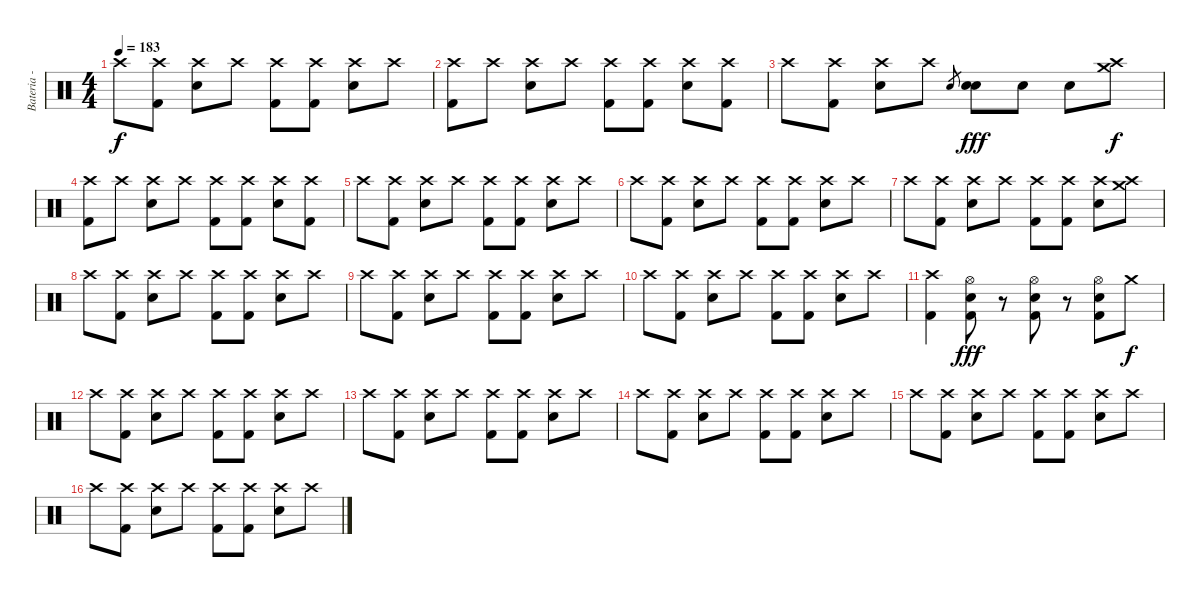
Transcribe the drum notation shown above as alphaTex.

\track ("Bateria - Larzon " "Bateria - ") {instrument percussion}
\staff {score}
\articulation defaults
\ts (4 4)
\tempo 183
\clef neutral
\ks c "Crash high (hit)".8{dy f}
("Kick (hit) 2" "Crash high (hit)").8 ("Snare (hit) 2" "Crash high (hit)").8 "Crash high (hit)".8 ("Kick (hit) 2" "Crash high (hit)").8 ("Kick (hit) 2" "Crash high (hit)").8 ("Snare (hit) 2" "Crash high (hit)").8 "Crash high (hit)".8 |
("Kick (hit) 2" "Crash high (hit)").8 "Crash high (hit)".8 ("Snare (hit) 2" "Crash high (hit)").8 "Crash high (hit)".8 ("Kick (hit) 2" "Crash high (hit)").8 ("Kick (hit) 2" "Crash high (hit)").8 ("Snare (hit) 2" "Crash high (hit)").8 ("Kick (hit) 2" "Crash high (hit)").8 |
"Crash high (hit)".8 ("Kick (hit) 2" "Crash high (hit)").8 ("Snare (hit) 2" "Crash high (hit)").8 "Crash high (hit)".8 "Snare (hit) 2".8{gr} ("Snare (hit) 2" "Snare (hit) 2").8{dy fff} "Snare (hit) 2".8 "Snare (hit) 2".8 ("Crash medium (hit)" "Crash high (hit)").8{dy f} |
("Kick (hit) 2" "Crash high (hit)").8 "Crash high (hit)".8 ("Snare (hit) 2" "Crash high (hit)").8 "Crash high (hit)".8 ("Kick (hit) 2" "Crash high (hit)").8 ("Kick (hit) 2" "Crash high (hit)").8 ("Snare (hit) 2" "Crash high (hit)").8 ("Kick (hit) 2" "Crash high (hit)").8 |
"Crash high (hit)".8 ("Kick (hit) 2" "Crash high (hit)").8 ("Snare (hit) 2" "Crash high (hit)").8 "Crash high (hit)".8 ("Kick (hit) 2" "Crash high (hit)").8 ("Kick (hit) 2" "Crash high (hit)").8 ("Snare (hit) 2" "Crash high (hit)").8 "Crash high (hit)".8 |
"Crash high (hit)".8 ("Kick (hit) 2" "Crash high (hit)").8 ("Snare (hit) 2" "Crash high (hit)").8 "Crash high (hit)".8 ("Kick (hit) 2" "Crash high (hit)").8 ("Kick (hit) 2" "Crash high (hit)").8 ("Snare (hit) 2" "Crash high (hit)").8 "Crash high (hit)".8 |
"Crash high (hit)".8 ("Kick (hit) 2" "Crash high (hit)").8 ("Snare (hit) 2" "Crash high (hit)").8 "Crash high (hit)".8 ("Kick (hit) 2" "Crash high (hit)").8 ("Kick (hit) 2" "Crash high (hit)").8 ("Snare (hit) 2" "Crash high (hit)").8 ("Crash medium (hit)" "Crash high (hit)").8 |
"Crash high (hit)".8 ("Kick (hit) 2" "Crash high (hit)").8 ("Snare (hit) 2" "Crash high (hit)").8 "Crash high (hit)".8 ("Kick (hit) 2" "Crash high (hit)").8 ("Kick (hit) 2" "Crash high (hit)").8 ("Snare (hit) 2" "Crash high (hit)").8 "Crash high (hit)".8 |
"Crash high (hit)".8 ("Kick (hit) 2" "Crash high (hit)").8 ("Snare (hit) 2" "Crash high (hit)").8 "Crash high (hit)".8 ("Kick (hit) 2" "Crash high (hit)").8 ("Kick (hit) 2" "Crash high (hit)").8 ("Snare (hit) 2" "Crash high (hit)").8 "Crash high (hit)".8 |
"Crash high (hit)".8 ("Kick (hit) 2" "Crash high (hit)").8 ("Snare (hit) 2" "Crash high (hit)").8 "Crash high (hit)".8 ("Kick (hit) 2" "Crash high (hit)").8 ("Kick (hit) 2" "Crash high (hit)").8 ("Snare (hit) 2" "Crash high (hit)").8 "Crash high (hit)".8 |
("Kick (hit) 2" "Crash high (hit)").4 ("Snare (hit) 2" "Kick (hit) 2" "Hi-Hat (open)").8{dy fff} r.8 ("Snare (hit) 2" "Kick (hit) 2" "Hi-Hat (open)").8 r.8 ("Snare (hit) 2" "Kick (hit) 2" "Hi-Hat (open)").8 "Crash medium (hit)".8{dy f} |
"Crash high (hit)".8 ("Kick (hit) 2" "Crash high (hit)").8 ("Snare (hit) 2" "Crash high (hit)").8 "Crash high (hit)".8 ("Kick (hit) 2" "Crash high (hit)").8 ("Kick (hit) 2" "Crash high (hit)").8 ("Snare (hit) 2" "Crash high (hit)").8 "Crash high (hit)".8 |
"Crash high (hit)".8 ("Kick (hit) 2" "Crash high (hit)").8 ("Snare (hit) 2" "Crash high (hit)").8 "Crash high (hit)".8 ("Kick (hit) 2" "Crash high (hit)").8 ("Kick (hit) 2" "Crash high (hit)").8 ("Snare (hit) 2" "Crash high (hit)").8 "Crash high (hit)".8 |
"Crash high (hit)".8 ("Kick (hit) 2" "Crash high (hit)").8 ("Snare (hit) 2" "Crash high (hit)").8 "Crash high (hit)".8 ("Kick (hit) 2" "Crash high (hit)").8 ("Kick (hit) 2" "Crash high (hit)").8 ("Snare (hit) 2" "Crash high (hit)").8 "Crash high (hit)".8 |
"Crash high (hit)".8 ("Kick (hit) 2" "Crash high (hit)").8 ("Snare (hit) 2" "Crash high (hit)").8 "Crash high (hit)".8 ("Kick (hit) 2" "Crash high (hit)").8 ("Kick (hit) 2" "Crash high (hit)").8 ("Snare (hit) 2" "Crash high (hit)").8 "Crash high (hit)".8 |
"Crash high (hit)".8 ("Kick (hit) 2" "Crash high (hit)").8 ("Snare (hit) 2" "Crash high (hit)").8 "Crash high (hit)".8 ("Kick (hit) 2" "Crash high (hit)").8 ("Kick (hit) 2" "Crash high (hit)").8 ("Snare (hit) 2" "Crash high (hit)").8 "Crash high (hit)".8
